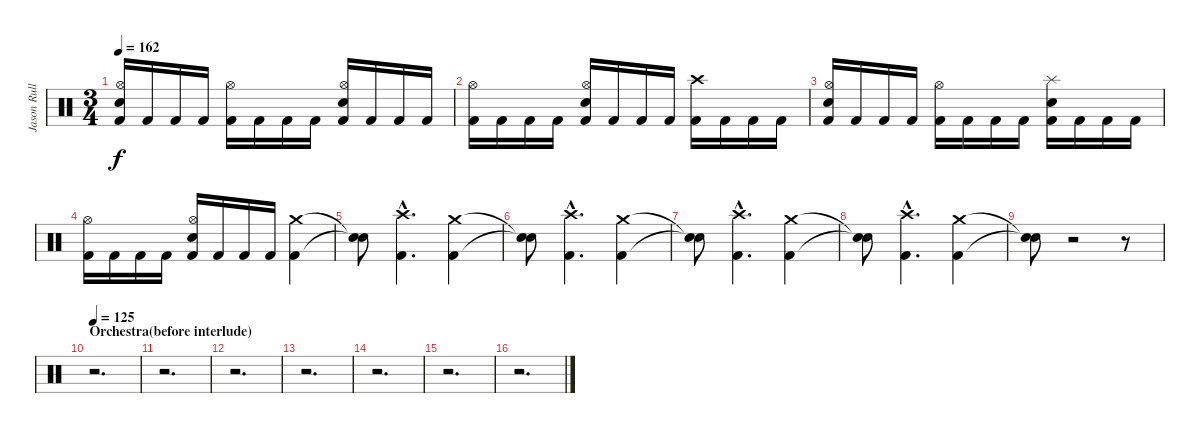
\track ("Jason Rullo" "Jason Rull") {instrument percussion}
\staff {score}
\articulation defaults
\ts (3 4)
\tempo 162
\clef neutral
\ks c
("Electric Snare (hit)" "Hi-Hat (open)" "Kick (hit) 2").16{dy f} "Kick (hit) 2".16 "Kick (hit) 2".16 "Kick (hit) 2".16 ("Hi-Hat (open)" "Kick (hit) 2").16 "Kick (hit) 2".16 "Kick (hit) 2".16 "Kick (hit) 2".16 ("Electric Snare (hit)" "Hi-Hat (open)" "Kick (hit) 2").16 "Kick (hit) 2".16 "Kick (hit) 2".16 "Kick (hit) 2".16 |
("Hi-Hat (open)" "Kick (hit) 2").16 "Kick (hit) 2".16 "Kick (hit) 2".16 "Kick (hit) 2".16 ("Electric Snare (hit)" "Hi-Hat (open)" "Kick (hit) 2").16 "Kick (hit) 2".16 "Kick (hit) 2".16 "Kick (hit) 2".16 ("Crash high (hit)" "Kick (hit) 2").16 "Kick (hit) 2".16 "Kick (hit) 2".16 "Kick (hit) 2".16 |
("Electric Snare (hit)" "Hi-Hat (open)" "Kick (hit) 2").16 "Kick (hit) 2".16 "Kick (hit) 2".16 "Kick (hit) 2".16 ("Hi-Hat (open)" "Kick (hit) 2").16 "Kick (hit) 2".16 "Kick (hit) 2".16 "Kick (hit) 2".16 ("Splash (hit)" "Electric Snare (hit)" "Kick (hit) 2").16 "Kick (hit) 2".16 "Kick (hit) 2".16 "Kick (hit) 2".16 |
("Hi-Hat (open)" "Kick (hit) 2").16 "Kick (hit) 2".16 "Kick (hit) 2".16 "Kick (hit) 2".16 ("Electric Snare (hit)" "Hi-Hat (open)" "Kick (hit) 2").16 "Kick (hit) 2".16 "Kick (hit) 2".16 "Kick (hit) 2".16 ("Crash medium (hit)" "Kick (hit) 2").4 |
("Snare (hit)"{t} "Snare (hit)"{t}).8 ("Crash high (hit)"{hac} "Kick (hit) 2"{hac}).4{d} ("Crash medium (hit)" "Kick (hit) 2").4 |
("Snare (hit)"{t} "Snare (hit)"{t}).8 ("Crash high (hit)"{hac} "Kick (hit) 2"{hac}).4{d} ("Crash medium (hit)" "Kick (hit) 2").4 |
("Snare (hit)"{t} "Snare (hit)"{t}).8 ("Crash high (hit)"{hac} "Kick (hit) 2"{hac}).4{d} ("Crash medium (hit)" "Kick (hit) 2").4 |
("Snare (hit)"{t} "Snare (hit)"{t}).8 ("Crash high (hit)"{hac} "Kick (hit) 2"{hac}).4{d} ("Crash medium (hit)" "Kick (hit) 2").4 |
("Snare (hit)"{t} "Snare (hit)"{t}).8 r.2 r.8 |
\section ("" "Orchestra(before interlude)")
\tempo 125
r.2{d} |
r.2{d} |
r.2{d} |
r.2{d} |
r.2{d} |
r.2{d} |
r.2{d}
